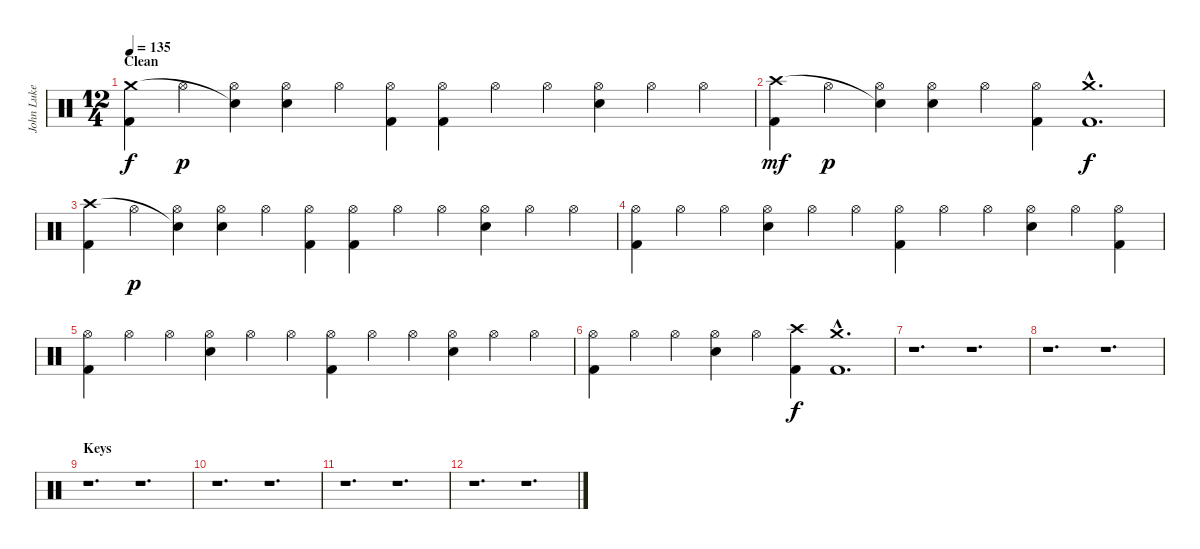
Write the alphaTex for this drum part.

\track ("John Luke Hebert" "John Luke ") {instrument percussion}
\staff {score}
\articulation defaults
\ts (12 4)
\section ("" "Clean")
\tempo 135
\clef neutral
\ks c
("Kick (hit) 2" "Crash medium (hit)").4{dy f} "Hi-Hat (open)".4{dy p} ("Hi-Hat (open)" "Snare (hit)"{t}).4 ("Electric Snare (hit)" "Hi-Hat (open)").4 "Hi-Hat (open)".4 ("Kick (hit) 2" "Hi-Hat (open)").4 ("Kick (hit) 2" "Hi-Hat (open)").4 "Hi-Hat (open)".4 "Hi-Hat (open)".4 ("Electric Snare (hit)" "Hi-Hat (open)").4 "Hi-Hat (open)".4 "Hi-Hat (open)".4 |
("Kick (hit) 2" "Crash high (hit)").4{dy mf} "Hi-Hat (open)".4{dy p} ("Hi-Hat (open)" "Snare (hit)"{t}).4 ("Electric Snare (hit)" "Hi-Hat (open)").4 "Hi-Hat (open)".4 ("Kick (hit) 2" "Hi-Hat (open)").4 ("Kick (hit) 2"{hac} "Crash medium (hit)"{hac}).1{d dy f} |
("Kick (hit) 2" "Crash high (hit)").4 "Hi-Hat (open)".4{dy p} ("Hi-Hat (open)" "Snare (hit)"{t}).4 ("Electric Snare (hit)" "Hi-Hat (open)").4 "Hi-Hat (open)".4 ("Kick (hit) 2" "Hi-Hat (open)").4 ("Kick (hit) 2" "Hi-Hat (open)").4 "Hi-Hat (open)".4 "Hi-Hat (open)".4 ("Electric Snare (hit)" "Hi-Hat (open)").4 "Hi-Hat (open)".4 "Hi-Hat (open)".4 |
("Kick (hit) 2" "Hi-Hat (open)").4 "Hi-Hat (open)".4 "Hi-Hat (open)".4 ("Electric Snare (hit)" "Hi-Hat (open)").4 "Hi-Hat (open)".4 "Hi-Hat (open)".4 ("Kick (hit) 2" "Hi-Hat (open)").4 "Hi-Hat (open)".4 "Hi-Hat (open)".4 ("Electric Snare (hit)" "Hi-Hat (open)").4 "Hi-Hat (open)".4 ("Kick (hit) 2" "Hi-Hat (open)").4 |
("Kick (hit) 2" "Hi-Hat (open)").4 "Hi-Hat (open)".4 "Hi-Hat (open)".4 ("Electric Snare (hit)" "Hi-Hat (open)").4 "Hi-Hat (open)".4 "Hi-Hat (open)".4 ("Kick (hit) 2" "Hi-Hat (open)").4 "Hi-Hat (open)".4 "Hi-Hat (open)".4 ("Electric Snare (hit)" "Hi-Hat (open)").4 "Hi-Hat (open)".4 "Hi-Hat (open)".4 |
("Kick (hit) 2" "Hi-Hat (open)").4 "Hi-Hat (open)".4 "Hi-Hat (open)".4 ("Electric Snare (hit)" "Hi-Hat (open)").4 "Hi-Hat (open)".4 ("Kick (hit) 2" "Crash high (hit)").4{dy f} ("Kick (hit) 2"{hac} "Crash medium (hit)"{hac}).1{d} |
r.1{d} r.1{d} |
r.1{d} r.1{d} |
\section ("" "Keys")
r.1{d} r.1{d} |
r.1{d} r.1{d} |
r.1{d} r.1{d} |
r.1{d} r.1{d}
